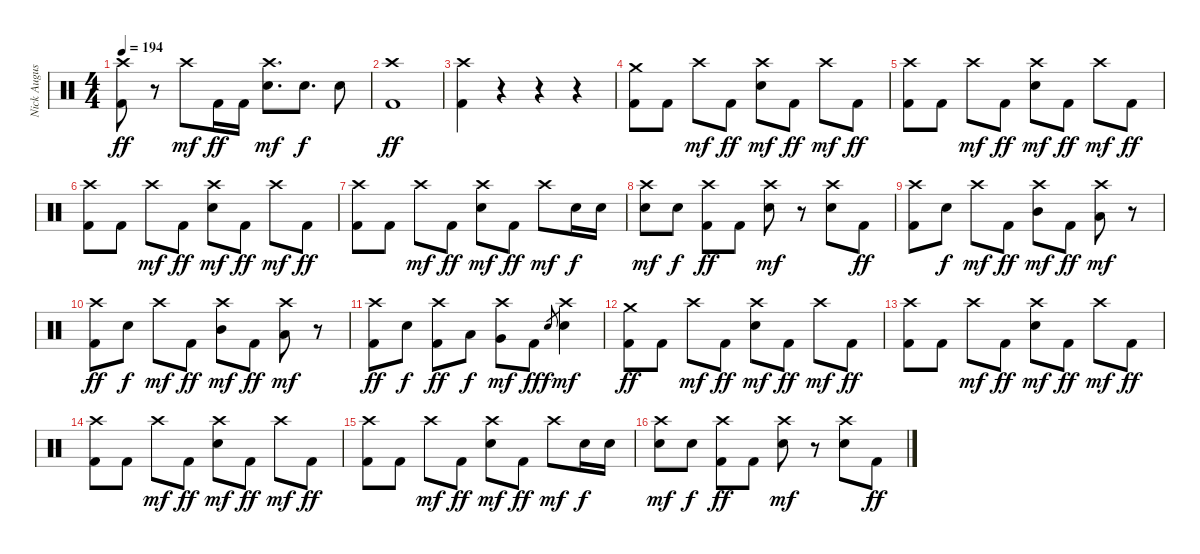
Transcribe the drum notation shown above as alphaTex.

\track ("Nick Augusto" "Nick Augus") {instrument percussion}
\staff {score}
\articulation defaults
\ts (4 4)
\tempo 194
\clef neutral
\ks c
("Crash high (hit)" "Kick (hit) 2").8{dy ff} r.8 "Crash high (hit)".8{dy mf} "Kick (hit) 2".16{dy ff} "Kick (hit) 2".16 ("Crash high (hit)" "Electric Snare (hit)").8{d dy mf} "Electric Snare (hit)".8{d dy f} "Electric Snare (hit)".8 |
("Crash high (hit)" "Kick (hit) 2").1{dy ff} |
("Crash high (hit)" "Kick (hit) 2").4 r.4 r.4 r.4 |
("Crash medium (hit)" "Kick (hit) 2").8 "Kick (hit) 2".8 "Crash high (hit)".8{dy mf} "Kick (hit) 2".8{dy ff} ("Crash high (hit)" "Electric Snare (hit)").8{dy mf} "Kick (hit) 2".8{dy ff} "Crash high (hit)".8{dy mf} "Kick (hit) 2".8{dy ff} |
("Crash high (hit)" "Kick (hit) 2").8 "Kick (hit) 2".8 "Crash high (hit)".8{dy mf} "Kick (hit) 2".8{dy ff} ("Crash high (hit)" "Electric Snare (hit)").8{dy mf} "Kick (hit) 2".8{dy ff} "Crash high (hit)".8{dy mf} "Kick (hit) 2".8{dy ff} |
("Crash high (hit)" "Kick (hit) 2").8 "Kick (hit) 2".8 "Crash high (hit)".8{dy mf} "Kick (hit) 2".8{dy ff} ("Crash high (hit)" "Electric Snare (hit)").8{dy mf} "Kick (hit) 2".8{dy ff} "Crash high (hit)".8{dy mf} "Kick (hit) 2".8{dy ff} |
("Crash high (hit)" "Kick (hit) 2").8 "Kick (hit) 2".8 "Crash high (hit)".8{dy mf} "Kick (hit) 2".8{dy ff} ("Crash high (hit)" "Electric Snare (hit)").8{dy mf} "Kick (hit) 2".8{dy ff} "Crash high (hit)".8{dy mf} "Electric Snare (hit)".16{dy f} "Electric Snare (hit)".16 |
("Crash high (hit)" "Electric Snare (hit)").8{dy mf} "Electric Snare (hit)".8{dy f} ("Crash high (hit)" "Kick (hit) 2").8{dy ff} "Kick (hit) 2".8 ("Crash high (hit)" "Electric Snare (hit)").8{dy mf} r.8 ("Crash high (hit)" "Electric Snare (hit)").8 "Kick (hit) 2".8{dy ff} |
("Crash high (hit)" "Kick (hit) 2").8 "Electric Snare (hit)".8{dy f} "Crash high (hit)".8{dy mf} "Kick (hit) 2".8{dy ff} ("Crash high (hit)" "Mid Tom (hit)").8{dy mf} "Kick (hit) 2".8{dy ff} ("Crash high (hit)" "Low Tom (hit)").8{dy mf} r.8 |
("Crash high (hit)" "Kick (hit) 2").8{dy ff} "Electric Snare (hit)".8{dy f} "Crash high (hit)".8{dy mf} "Kick (hit) 2".8{dy ff} ("Crash high (hit)" "Mid Tom (hit)").8{dy mf} "Kick (hit) 2".8{dy ff} ("Crash high (hit)" "Low Tom (hit)").8{dy mf} r.8 |
("Crash high (hit)" "Kick (hit) 2").8{dy ff} "Electric Snare (hit)".8{dy f} ("Crash high (hit)" "Kick (hit) 2").8{dy ff} "Low Tom (hit)".8{dy f} ("Crash high (hit)" "Very Low Tom (hit)").8{dy mf} "Kick (hit) 2".8{dy ff} "Electric Snare (hit)".8{gr dy f} ("Crash high (hit)" "Electric Snare (hit)").4{dy mf} |
("Crash medium (hit)" "Kick (hit) 2").8{dy ff} "Kick (hit) 2".8 "Crash high (hit)".8{dy mf} "Kick (hit) 2".8{dy ff} ("Crash high (hit)" "Electric Snare (hit)").8{dy mf} "Kick (hit) 2".8{dy ff} "Crash high (hit)".8{dy mf} "Kick (hit) 2".8{dy ff} |
("Crash high (hit)" "Kick (hit) 2").8 "Kick (hit) 2".8 "Crash high (hit)".8{dy mf} "Kick (hit) 2".8{dy ff} ("Crash high (hit)" "Electric Snare (hit)").8{dy mf} "Kick (hit) 2".8{dy ff} "Crash high (hit)".8{dy mf} "Kick (hit) 2".8{dy ff} |
("Crash high (hit)" "Kick (hit) 2").8 "Kick (hit) 2".8 "Crash high (hit)".8{dy mf} "Kick (hit) 2".8{dy ff} ("Crash high (hit)" "Electric Snare (hit)").8{dy mf} "Kick (hit) 2".8{dy ff} "Crash high (hit)".8{dy mf} "Kick (hit) 2".8{dy ff} |
("Crash high (hit)" "Kick (hit) 2").8 "Kick (hit) 2".8 "Crash high (hit)".8{dy mf} "Kick (hit) 2".8{dy ff} ("Crash high (hit)" "Electric Snare (hit)").8{dy mf} "Kick (hit) 2".8{dy ff} "Crash high (hit)".8{dy mf} "Electric Snare (hit)".16{dy f} "Electric Snare (hit)".16 |
("Crash high (hit)" "Electric Snare (hit)").8{dy mf} "Electric Snare (hit)".8{dy f} ("Crash high (hit)" "Kick (hit) 2").8{dy ff} "Kick (hit) 2".8 ("Crash high (hit)" "Electric Snare (hit)").8{dy mf} r.8 ("Crash high (hit)" "Electric Snare (hit)").8 "Kick (hit) 2".8{dy ff}
